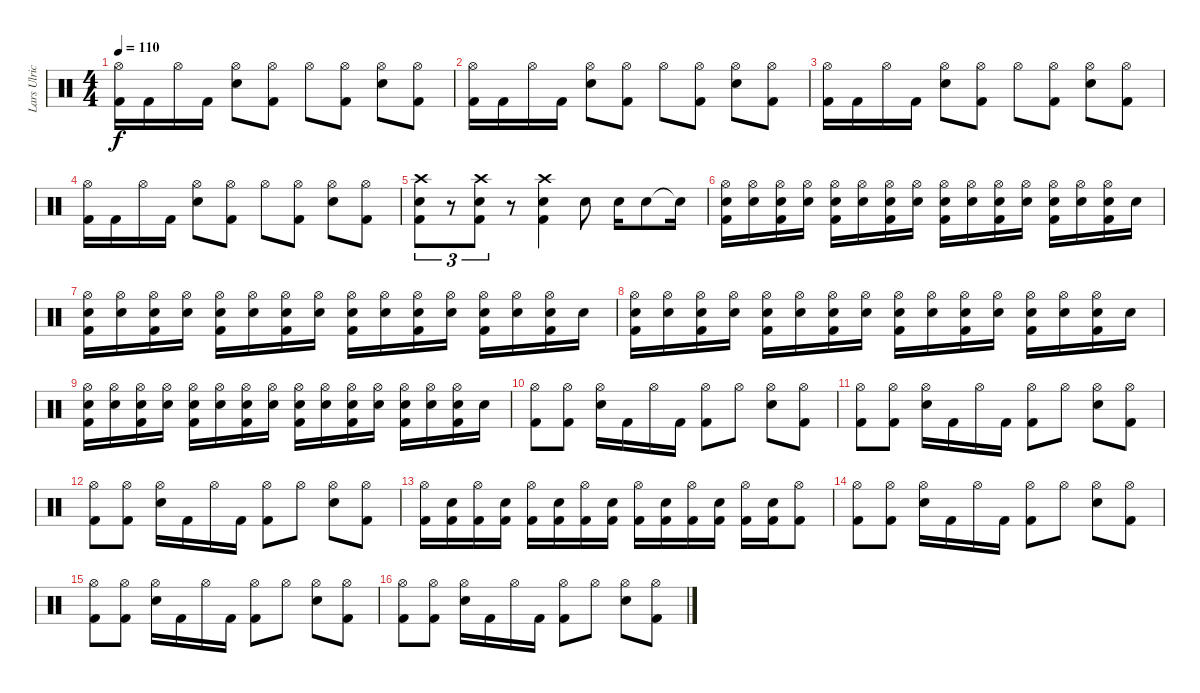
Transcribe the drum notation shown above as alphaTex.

\track ("Lars Ulrich" "Lars Ulric") {instrument percussion}
\staff {score}
\articulation defaults
\ts (4 4)
\tempo 110
\clef neutral
\ks c
("Hi-Hat (open)" "Kick (hit) 2").16{dy f} "Kick (hit) 2".16 "Hi-Hat (open)".16 "Kick (hit) 2".16 ("Hi-Hat (open)" "Electric Snare (hit)").8 ("Hi-Hat (open)" "Kick (hit) 2").8 "Hi-Hat (open)".8 ("Hi-Hat (open)" "Kick (hit) 2").8 ("Hi-Hat (open)" "Electric Snare (hit)").8 ("Hi-Hat (open)" "Kick (hit) 2").8 |
("Hi-Hat (open)" "Kick (hit) 2").16 "Kick (hit) 2".16 "Hi-Hat (open)".16 "Kick (hit) 2".16 ("Hi-Hat (open)" "Electric Snare (hit)").8 ("Hi-Hat (open)" "Kick (hit) 2").8 "Hi-Hat (open)".8 ("Hi-Hat (open)" "Kick (hit) 2").8 ("Hi-Hat (open)" "Electric Snare (hit)").8 ("Hi-Hat (open)" "Kick (hit) 2").8 |
("Hi-Hat (open)" "Kick (hit) 2").16 "Kick (hit) 2".16 "Hi-Hat (open)".16 "Kick (hit) 2".16 ("Hi-Hat (open)" "Electric Snare (hit)").8 ("Hi-Hat (open)" "Kick (hit) 2").8 "Hi-Hat (open)".8 ("Hi-Hat (open)" "Kick (hit) 2").8 ("Hi-Hat (open)" "Electric Snare (hit)").8 ("Hi-Hat (open)" "Kick (hit) 2").8 |
("Hi-Hat (open)" "Kick (hit) 2").16 "Kick (hit) 2".16 "Hi-Hat (open)".16 "Kick (hit) 2".16 ("Hi-Hat (open)" "Electric Snare (hit)").8 ("Hi-Hat (open)" "Kick (hit) 2").8 "Hi-Hat (open)".8 ("Hi-Hat (open)" "Kick (hit) 2").8 ("Hi-Hat (open)" "Electric Snare (hit)").8 ("Hi-Hat (open)" "Kick (hit) 2").8 |
("Crash high (hit)" "Electric Snare (hit)" "Kick (hit) 2").8{tu (3 2)} r.8{tu (3 2)} ("Crash high (hit)" "Electric Snare (hit)" "Kick (hit) 2").8{tu (3 2)} r.8 ("Crash high (hit)" "Electric Snare (hit)" "Kick (hit) 2").4 "Electric Snare (hit)".8 "Electric Snare (hit)".16 "Electric Snare (hit)".8 "Snare (hit)"{t}.16 |
("Hi-Hat (open)" "Electric Snare (hit)" "Kick (hit) 2").16 ("Hi-Hat (open)" "Electric Snare (hit)").16 ("Hi-Hat (open)" "Electric Snare (hit)" "Kick (hit) 2").16 ("Hi-Hat (open)" "Electric Snare (hit)").16 ("Hi-Hat (open)" "Electric Snare (hit)" "Kick (hit) 2").16 ("Hi-Hat (open)" "Electric Snare (hit)").16 ("Hi-Hat (open)" "Electric Snare (hit)" "Kick (hit) 2").16 ("Hi-Hat (open)" "Electric Snare (hit)").16 ("Hi-Hat (open)" "Electric Snare (hit)" "Kick (hit) 2").16 ("Hi-Hat (open)" "Electric Snare (hit)").16 ("Hi-Hat (open)" "Electric Snare (hit)" "Kick (hit) 2").16 ("Hi-Hat (open)" "Electric Snare (hit)").16 ("Hi-Hat (open)" "Electric Snare (hit)" "Kick (hit) 2").16 ("Hi-Hat (open)" "Electric Snare (hit)").16 ("Hi-Hat (open)" "Electric Snare (hit)" "Kick (hit) 2").16 "Electric Snare (hit)".16 |
("Hi-Hat (open)" "Electric Snare (hit)" "Kick (hit) 2").16 ("Hi-Hat (open)" "Electric Snare (hit)").16 ("Hi-Hat (open)" "Electric Snare (hit)" "Kick (hit) 2").16 ("Hi-Hat (open)" "Electric Snare (hit)").16 ("Hi-Hat (open)" "Electric Snare (hit)" "Kick (hit) 2").16 ("Hi-Hat (open)" "Electric Snare (hit)").16 ("Hi-Hat (open)" "Electric Snare (hit)" "Kick (hit) 2").16 ("Hi-Hat (open)" "Electric Snare (hit)").16 ("Hi-Hat (open)" "Electric Snare (hit)" "Kick (hit) 2").16 ("Hi-Hat (open)" "Electric Snare (hit)").16 ("Hi-Hat (open)" "Electric Snare (hit)" "Kick (hit) 2").16 ("Hi-Hat (open)" "Electric Snare (hit)").16 ("Hi-Hat (open)" "Electric Snare (hit)" "Kick (hit) 2").16 ("Hi-Hat (open)" "Electric Snare (hit)").16 ("Hi-Hat (open)" "Electric Snare (hit)" "Kick (hit) 2").16 "Electric Snare (hit)".16 |
("Hi-Hat (open)" "Electric Snare (hit)" "Kick (hit) 2").16 ("Hi-Hat (open)" "Electric Snare (hit)").16 ("Hi-Hat (open)" "Electric Snare (hit)" "Kick (hit) 2").16 ("Hi-Hat (open)" "Electric Snare (hit)").16 ("Hi-Hat (open)" "Electric Snare (hit)" "Kick (hit) 2").16 ("Hi-Hat (open)" "Electric Snare (hit)").16 ("Hi-Hat (open)" "Electric Snare (hit)" "Kick (hit) 2").16 ("Hi-Hat (open)" "Electric Snare (hit)").16 ("Hi-Hat (open)" "Electric Snare (hit)" "Kick (hit) 2").16 ("Hi-Hat (open)" "Electric Snare (hit)").16 ("Hi-Hat (open)" "Electric Snare (hit)" "Kick (hit) 2").16 ("Hi-Hat (open)" "Electric Snare (hit)").16 ("Hi-Hat (open)" "Electric Snare (hit)" "Kick (hit) 2").16 ("Hi-Hat (open)" "Electric Snare (hit)").16 ("Hi-Hat (open)" "Electric Snare (hit)" "Kick (hit) 2").16 "Electric Snare (hit)".16 |
("Hi-Hat (open)" "Electric Snare (hit)" "Kick (hit) 2").16 ("Hi-Hat (open)" "Electric Snare (hit)").16 ("Hi-Hat (open)" "Electric Snare (hit)" "Kick (hit) 2").16 ("Hi-Hat (open)" "Electric Snare (hit)").16 ("Hi-Hat (open)" "Electric Snare (hit)" "Kick (hit) 2").16 ("Hi-Hat (open)" "Electric Snare (hit)").16 ("Hi-Hat (open)" "Electric Snare (hit)" "Kick (hit) 2").16 ("Hi-Hat (open)" "Electric Snare (hit)").16 ("Hi-Hat (open)" "Electric Snare (hit)" "Kick (hit) 2").16 ("Hi-Hat (open)" "Electric Snare (hit)").16 ("Hi-Hat (open)" "Electric Snare (hit)" "Kick (hit) 2").16 ("Hi-Hat (open)" "Electric Snare (hit)").16 ("Hi-Hat (open)" "Electric Snare (hit)" "Kick (hit) 2").16 ("Hi-Hat (open)" "Electric Snare (hit)").16 ("Hi-Hat (open)" "Electric Snare (hit)" "Kick (hit) 2").16 "Electric Snare (hit)".16 |
("Hi-Hat (open)" "Kick (hit) 2").8 ("Hi-Hat (open)" "Kick (hit) 2").8 ("Hi-Hat (open)" "Electric Snare (hit)").16 "Kick (hit) 2".16 "Hi-Hat (open)".16 "Kick (hit) 2".16 ("Hi-Hat (open)" "Kick (hit) 2").8 "Hi-Hat (open)".8 ("Hi-Hat (open)" "Electric Snare (hit)").8 ("Hi-Hat (open)" "Kick (hit) 2").8 |
("Hi-Hat (open)" "Kick (hit) 2").8 ("Hi-Hat (open)" "Kick (hit) 2").8 ("Hi-Hat (open)" "Electric Snare (hit)").16 "Kick (hit) 2".16 "Hi-Hat (open)".16 "Kick (hit) 2".16 ("Hi-Hat (open)" "Kick (hit) 2").8 "Hi-Hat (open)".8 ("Hi-Hat (open)" "Electric Snare (hit)").8 ("Hi-Hat (open)" "Kick (hit) 2").8 |
("Hi-Hat (open)" "Kick (hit) 2").8 ("Hi-Hat (open)" "Kick (hit) 2").8 ("Hi-Hat (open)" "Electric Snare (hit)").16 "Kick (hit) 2".16 "Hi-Hat (open)".16 "Kick (hit) 2".16 ("Hi-Hat (open)" "Kick (hit) 2").8 "Hi-Hat (open)".8 ("Hi-Hat (open)" "Electric Snare (hit)").8 ("Hi-Hat (open)" "Kick (hit) 2").8 |
("Hi-Hat (open)" "Kick (hit) 2").16 ("Electric Snare (hit)" "Kick (hit) 2").16 ("Hi-Hat (open)" "Kick (hit) 2").16 ("Electric Snare (hit)" "Kick (hit) 2").16 ("Hi-Hat (open)" "Kick (hit) 2").16 ("Electric Snare (hit)" "Kick (hit) 2").16 ("Hi-Hat (open)" "Kick (hit) 2").16 ("Electric Snare (hit)" "Kick (hit) 2").16 ("Hi-Hat (open)" "Kick (hit) 2").16 ("Electric Snare (hit)" "Kick (hit) 2").16 ("Hi-Hat (open)" "Kick (hit) 2").16 ("Electric Snare (hit)" "Kick (hit) 2").16 ("Hi-Hat (open)" "Kick (hit) 2").16 ("Electric Snare (hit)" "Kick (hit) 2").16 ("Hi-Hat (open)" "Kick (hit) 2").8 |
("Hi-Hat (open)" "Kick (hit) 2").8 ("Hi-Hat (open)" "Kick (hit) 2").8 ("Hi-Hat (open)" "Electric Snare (hit)").16 "Kick (hit) 2".16 "Hi-Hat (open)".16 "Kick (hit) 2".16 ("Hi-Hat (open)" "Kick (hit) 2").8 "Hi-Hat (open)".8 ("Hi-Hat (open)" "Electric Snare (hit)").8 ("Hi-Hat (open)" "Kick (hit) 2").8 |
("Hi-Hat (open)" "Kick (hit) 2").8 ("Hi-Hat (open)" "Kick (hit) 2").8 ("Hi-Hat (open)" "Electric Snare (hit)").16 "Kick (hit) 2".16 "Hi-Hat (open)".16 "Kick (hit) 2".16 ("Hi-Hat (open)" "Kick (hit) 2").8 "Hi-Hat (open)".8 ("Hi-Hat (open)" "Electric Snare (hit)").8 ("Hi-Hat (open)" "Kick (hit) 2").8 |
("Hi-Hat (open)" "Kick (hit) 2").8 ("Hi-Hat (open)" "Kick (hit) 2").8 ("Hi-Hat (open)" "Electric Snare (hit)").16 "Kick (hit) 2".16 "Hi-Hat (open)".16 "Kick (hit) 2".16 ("Hi-Hat (open)" "Kick (hit) 2").8 "Hi-Hat (open)".8 ("Hi-Hat (open)" "Electric Snare (hit)").8 ("Hi-Hat (open)" "Kick (hit) 2").8
